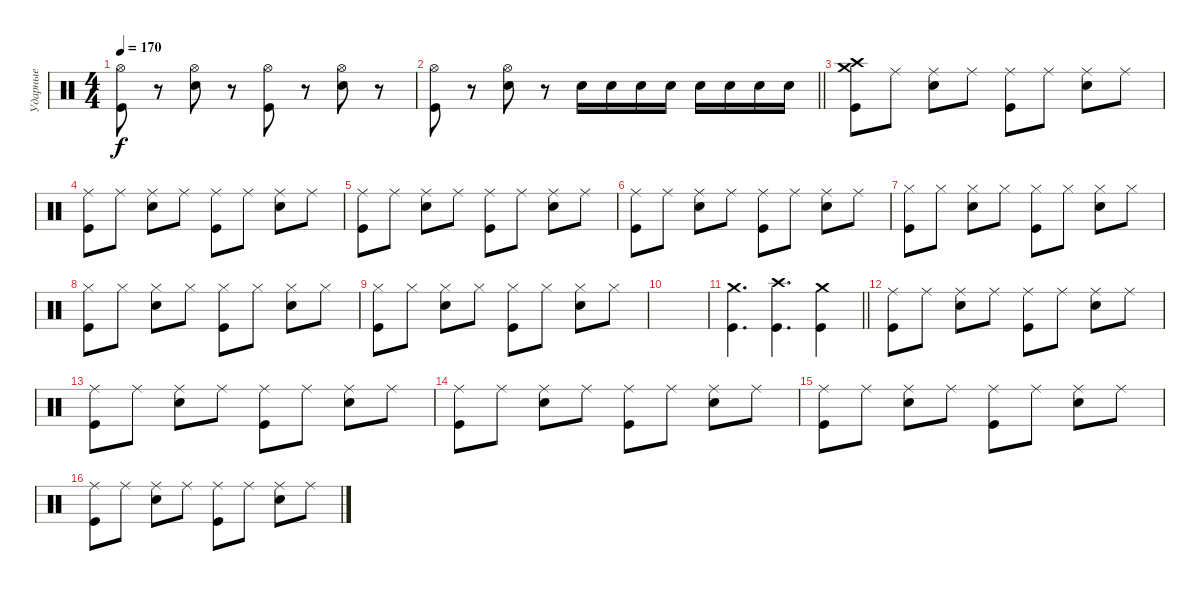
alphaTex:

\track ("Ударные" "Ударные") {instrument percussion}
\staff {score}
\articulation defaults
\ts (4 4)
\tempo 170
\clef neutral
\ks c
("Hi-Hat (open)" "Kick (hit)").8{dy f} r.8 ("Hi-Hat (open)" "Electric Snare (hit)").8 r.8 ("Hi-Hat (open)" "Kick (hit)").8 r.8 ("Hi-Hat (open)" "Electric Snare (hit)").8 r.8 |
\barLineRight lightlight
("Hi-Hat (open)" "Kick (hit)").8 r.8 ("Hi-Hat (open)" "Electric Snare (hit)").8 r.8 "Electric Snare (hit)".16 "Electric Snare (hit)".16 "Electric Snare (hit)".16 "Electric Snare (hit)".16 "Electric Snare (hit)".16 "Electric Snare (hit)".16 "Electric Snare (hit)".16 "Electric Snare (hit)".16 |
("Crash medium (hit)" "Kick (hit)" "Crash high (hit)").8 "Ride (middle)".8 ("Ride (middle)" "Electric Snare (hit)").8 "Ride (middle)".8 ("Ride (middle)" "Kick (hit)").8 "Ride (middle)".8 ("Ride (middle)" "Electric Snare (hit)").8 "Ride (middle)".8 |
("Ride (middle)" "Kick (hit)").8 "Ride (middle)".8 ("Ride (middle)" "Electric Snare (hit)").8 "Ride (middle)".8 ("Ride (middle)" "Kick (hit)").8 "Ride (middle)".8 ("Ride (middle)" "Electric Snare (hit)").8 "Ride (middle)".8 |
("Ride (middle)" "Kick (hit)").8 "Ride (middle)".8 ("Ride (middle)" "Electric Snare (hit)").8 "Ride (middle)".8 ("Ride (middle)" "Kick (hit)").8 "Ride (middle)".8 ("Ride (middle)" "Electric Snare (hit)").8 "Ride (middle)".8 |
("Ride (middle)" "Kick (hit)").8 "Ride (middle)".8 ("Ride (middle)" "Electric Snare (hit)").8 "Ride (middle)".8 ("Ride (middle)" "Kick (hit)").8 "Ride (middle)".8 ("Ride (middle)" "Electric Snare (hit)").8 "Ride (middle)".8 |
("Hi-Hat (closed)" "Kick (hit)").8 "Hi-Hat (closed)".8 ("Hi-Hat (closed)" "Electric Snare (hit)").8 "Hi-Hat (closed)".8 ("Hi-Hat (closed)" "Kick (hit)").8 "Hi-Hat (closed)".8 ("Hi-Hat (closed)" "Electric Snare (hit)").8 "Hi-Hat (closed)".8 |
("Hi-Hat (closed)" "Kick (hit)").8 "Hi-Hat (closed)".8 ("Hi-Hat (closed)" "Electric Snare (hit)").8 "Hi-Hat (closed)".8 ("Hi-Hat (closed)" "Kick (hit)").8 "Hi-Hat (closed)".8 ("Hi-Hat (closed)" "Electric Snare (hit)").8 "Hi-Hat (closed)".8 |
("Hi-Hat (closed)" "Kick (hit)").8 "Hi-Hat (closed)".8 ("Hi-Hat (closed)" "Electric Snare (hit)").8 "Hi-Hat (closed)".8 ("Hi-Hat (closed)" "Kick (hit)").8 "Hi-Hat (closed)".8 ("Hi-Hat (closed)" "Electric Snare (hit)").8 "Hi-Hat (closed)".8 |
|
\barLineRight lightlight
("Crash medium (hit)" "Kick (hit)").4{d} ("Crash high (hit)" "Kick (hit)").4{d} ("Crash medium (hit)" "Kick (hit)").4 |
("Ride (middle)" "Kick (hit)").8 "Ride (middle)".8 ("Ride (middle)" "Electric Snare (hit)").8 "Ride (middle)".8 ("Ride (middle)" "Kick (hit)").8 "Ride (middle)".8 ("Ride (middle)" "Electric Snare (hit)").8 "Ride (middle)".8 |
("Ride (middle)" "Kick (hit)").8 "Ride (middle)".8 ("Ride (middle)" "Electric Snare (hit)").8 "Ride (middle)".8 ("Ride (middle)" "Kick (hit)").8 "Ride (middle)".8 ("Ride (middle)" "Electric Snare (hit)").8 "Ride (middle)".8 |
("Ride (middle)" "Kick (hit)").8 "Ride (middle)".8 ("Ride (middle)" "Electric Snare (hit)").8 "Ride (middle)".8 ("Ride (middle)" "Kick (hit)").8 "Ride (middle)".8 ("Ride (middle)" "Electric Snare (hit)").8 "Ride (middle)".8 |
("Ride (middle)" "Kick (hit)").8 "Ride (middle)".8 ("Ride (middle)" "Electric Snare (hit)").8 "Ride (middle)".8 ("Ride (middle)" "Kick (hit)").8 "Ride (middle)".8 ("Ride (middle)" "Electric Snare (hit)").8 "Ride (middle)".8 |
("Ride (middle)" "Kick (hit)").8 "Ride (middle)".8 ("Ride (middle)" "Electric Snare (hit)").8 "Ride (middle)".8 ("Ride (middle)" "Kick (hit)").8 "Ride (middle)".8 ("Ride (middle)" "Electric Snare (hit)").8 "Ride (middle)".8
